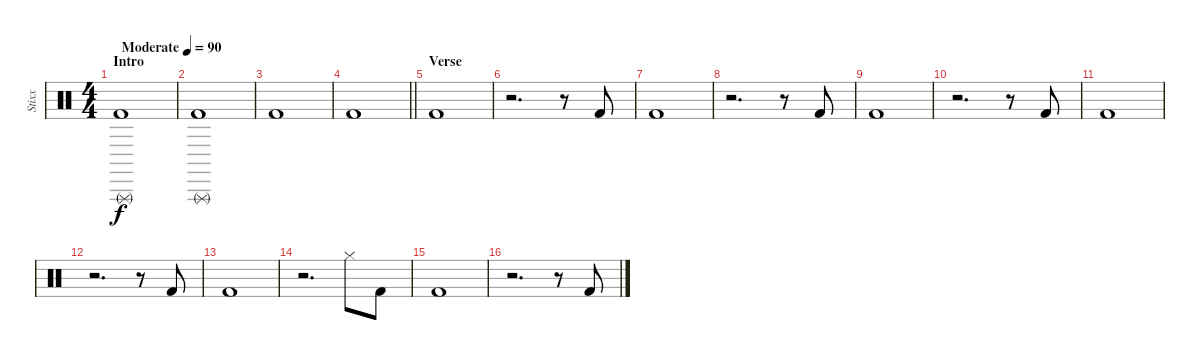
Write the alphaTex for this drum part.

\track ("Stixx" "Stixx") {instrument percussion}
\staff {score}
\articulation defaults
\ts (4 4)
\section ("" "Intro")
\tempo (90 "Moderate")
\clef neutral
\ks c
("Triangle (rnute)" "Kick (hit) 2").1{dy f} |
("Triangle (rnute)" "Kick (hit) 2").1 |
"Kick (hit) 2".1 |
\barLineRight lightlight "Kick (hit) 2".1
|
\section ("" "Verse")
"Kick (hit) 2".1 |
r.2{d} r.8 "Kick (hit) 2".8 |
"Kick (hit) 2".1 |
r.2{d} r.8 "Kick (hit) 2".8 |
"Kick (hit) 2".1 |
r.2{d} r.8 "Kick (hit) 2".8 |
"Kick (hit) 2".1 |
r.2{d} r.8 "Kick (hit) 2".8 |
"Kick (hit) 2".1 |
r.2{d} "Hi-Hat (closed)".8 "Kick (hit) 2".8 |
"Kick (hit) 2".1 |
r.2{d} r.8 "Kick (hit) 2".8
